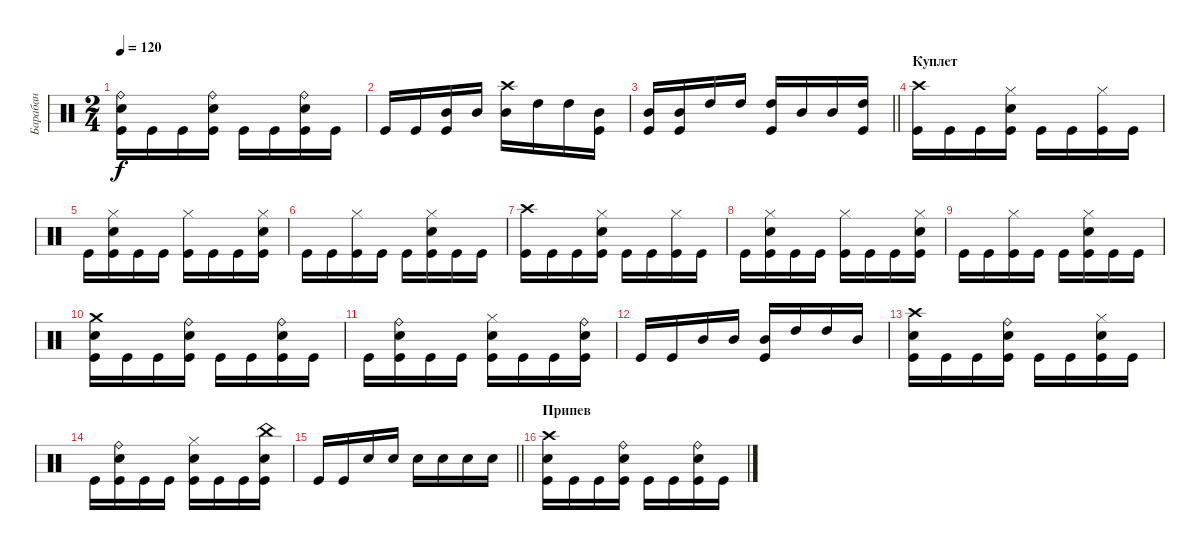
\track ("Барабан" "Барабан") {instrument percussion}
\staff {score}
\articulation defaults
\ts (2 4)
\tempo 120
\clef neutral
\ks c
("Ride (bell)" "Electric Snare (hit)" "Kick (hit)").16{dy f} "Kick (hit)".16 "Kick (hit)".16 ("Ride (bell)" "Electric Snare (hit)" "Kick (hit)").16 "Kick (hit)".16 "Kick (hit)".16 ("Ride (bell)" "Electric Snare (hit)" "Kick (hit)").16 "Kick (hit)".16 |
"Kick (hit)".16 "Kick (hit)".16 ("Mid Tom (hit)" "Kick (hit)").16 "Mid Tom (hit)".16 ("Crash high (hit)" "Mid Tom (hit)").16 "High Tom (hit)".16 "High Tom (hit)".16 ("Mid Tom (hit)" "Kick (hit)").16 |
\barLineRight lightlight
("Mid Tom (hit)" "Kick (hit)").16 ("Mid Tom (hit)" "Kick (hit)").16 "High Tom (hit)".16 "High Tom (hit)".16 ("High Tom (hit)" "Kick (hit)").16 "Mid Tom (hit)".16 "Mid Tom (hit)".16 ("High Tom (hit)" "Kick (hit)").16 |
\section ("" "Куплет")
("Crash high (hit)" "Kick (hit)").16 "Kick (hit)".16 "Kick (hit)".16 ("Hi-Hat (closed)" "Electric Snare (hit)" "Kick (hit)").16 "Kick (hit)".16 "Kick (hit)".16 ("Hi-Hat (closed)" "Kick (hit)").16 "Kick (hit)".16 |
"Kick (hit)".16 ("Hi-Hat (closed)" "Electric Snare (hit)" "Kick (hit)").16 "Kick (hit)".16 "Kick (hit)".16 ("Hi-Hat (closed)" "Kick (hit)").16 "Kick (hit)".16 "Kick (hit)".16 ("Hi-Hat (closed)" "Electric Snare (hit)" "Kick (hit)").16 |
"Kick (hit)".16 "Kick (hit)".16 ("Hi-Hat (closed)" "Kick (hit)").16 "Kick (hit)".16 "Kick (hit)".16 ("Hi-Hat (closed)" "Electric Snare (hit)" "Kick (hit)").16 "Kick (hit)".16 "Kick (hit)".16 |
("Crash high (hit)" "Kick (hit)").16 "Kick (hit)".16 "Kick (hit)".16 ("Hi-Hat (closed)" "Electric Snare (hit)" "Kick (hit)").16 "Kick (hit)".16 "Kick (hit)".16 ("Hi-Hat (closed)" "Kick (hit)").16 "Kick (hit)".16 |
"Kick (hit)".16 ("Hi-Hat (closed)" "Electric Snare (hit)" "Kick (hit)").16 "Kick (hit)".16 "Kick (hit)".16 ("Hi-Hat (closed)" "Kick (hit)").16 "Kick (hit)".16 "Kick (hit)".16 ("Hi-Hat (closed)" "Electric Snare (hit)" "Kick (hit)").16 |
"Kick (hit)".16 "Kick (hit)".16 ("Hi-Hat (closed)" "Kick (hit)").16 "Kick (hit)".16 "Kick (hit)".16 ("Hi-Hat (closed)" "Electric Snare (hit)" "Kick (hit)").16 "Kick (hit)".16 "Kick (hit)".16 |
("Crash medium (hit)" "Electric Snare (hit)" "Kick (hit)").16 "Kick (hit)".16 "Kick (hit)".16 ("Ride (bell)" "Electric Snare (hit)" "Kick (hit)").16 "Kick (hit)".16 "Kick (hit)".16 ("Ride (bell)" "Electric Snare (hit)" "Kick (hit)").16 "Kick (hit)".16 |
"Kick (hit)".16 ("Ride (bell)" "Electric Snare (hit)" "Kick (hit)").16 "Kick (hit)".16 "Kick (hit)".16 ("Hi-Hat (closed)" "Electric Snare (hit)" "Kick (hit)").16 "Kick (hit)".16 "Kick (hit)".16 ("Ride (bell)" "Electric Snare (hit)" "Kick (hit)").16 |
"Kick (hit)".16 "Kick (hit)".16 "Mid Tom (hit)".16 "Mid Tom (hit)".16 ("Mid Tom (hit)" "Kick (hit)").16 "High Tom (hit)".16 "High Tom (hit)".16 "Mid Tom (hit)".16 |
("Crash high (hit)" "Electric Snare (hit)" "Kick (hit)").16 "Kick (hit)".16 "Kick (hit)".16 ("Ride (bell)" "Electric Snare (hit)" "Kick (hit)").16 "Kick (hit)".16 "Kick (hit)".16 ("Hi-Hat (closed)" "Electric Snare (hit)" "Kick (hit)").16 "Kick (hit)".16 |
"Kick (hit)".16 ("Ride (bell)" "Electric Snare (hit)" "Kick (hit)").16 "Kick (hit)".16 "Kick (hit)".16 ("Hi-Hat (closed)" "Electric Snare (hit)" "Kick (hit)").16 "Kick (hit)".16 "Kick (hit)".16 ("China (hit)" "Electric Snare (hit)" "Kick (hit)").16 |
\barLineRight lightlight "Kick (hit)".16 "Kick (hit)".16 "Electric Snare (hit)".16 "Electric Snare (hit)".16 "Electric Snare (hit)".16 "Electric Snare (hit)".16 "Electric Snare (hit)".16 "Electric Snare (hit)".16
|
\section ("" "Припев")
("Crash high (hit)" "Electric Snare (hit)" "Kick (hit)").16 "Kick (hit)".16 "Kick (hit)".16 ("Ride (bell)" "Electric Snare (hit)" "Kick (hit)").16 "Kick (hit)".16 "Kick (hit)".16 ("Ride (bell)" "Electric Snare (hit)" "Kick (hit)").16 "Kick (hit)".16
